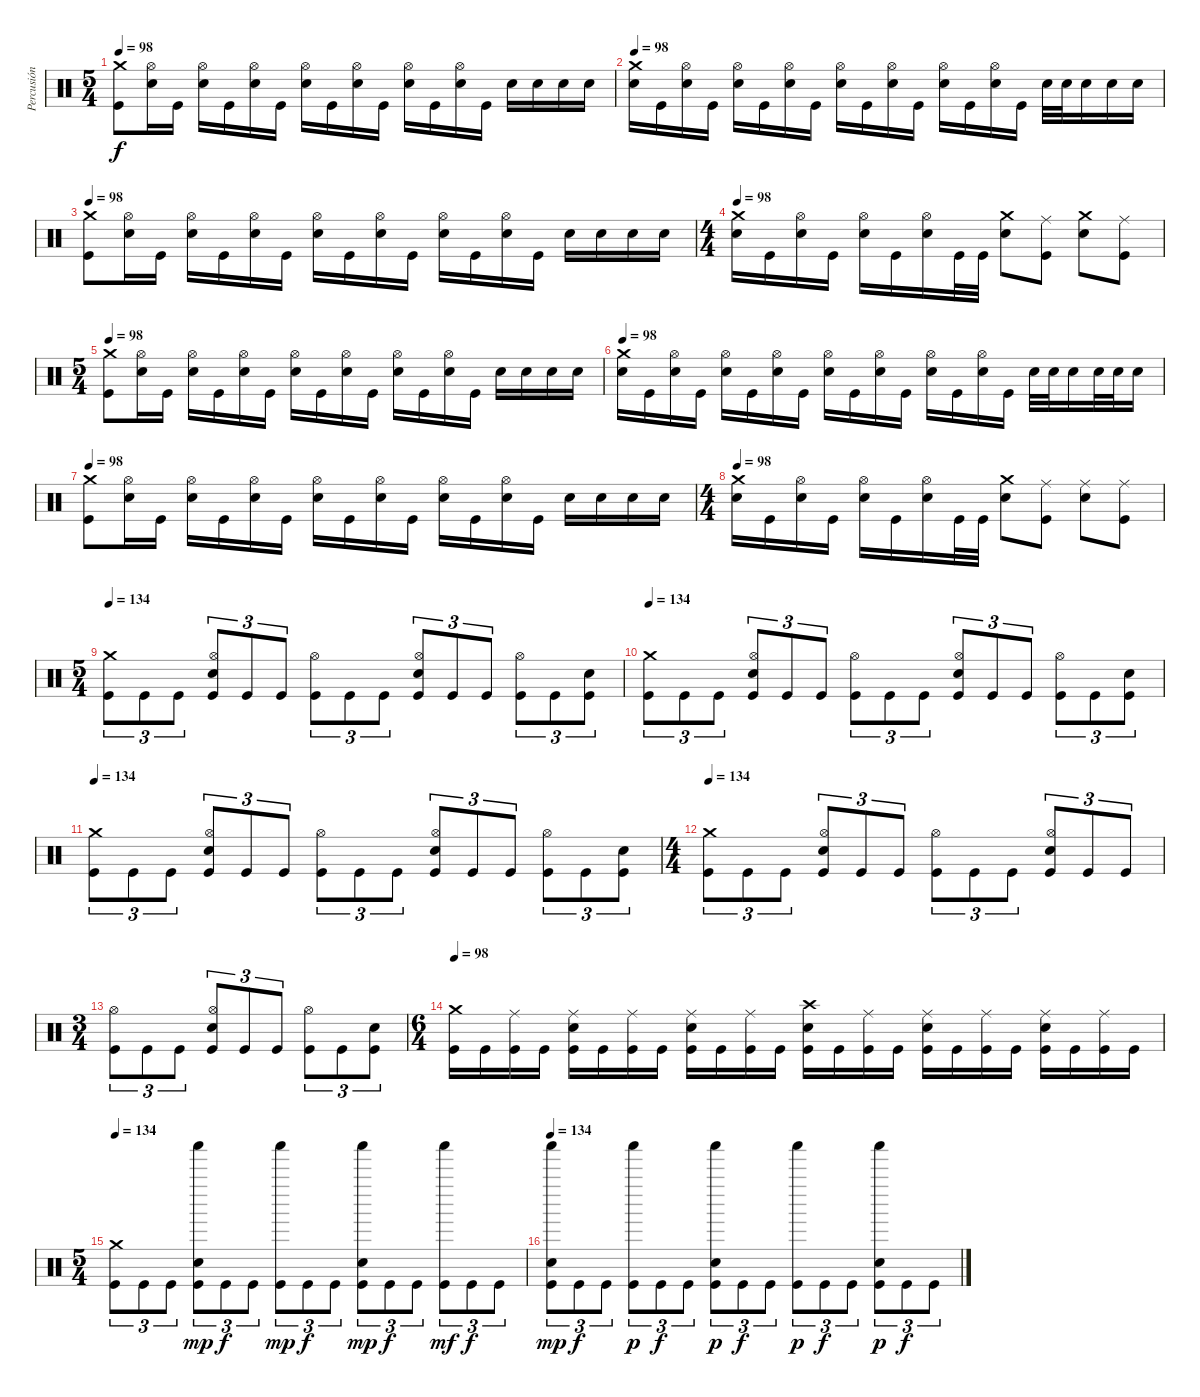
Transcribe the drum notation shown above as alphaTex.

\track ("Percusión" "Percusión") {instrument percussion}
\staff {score}
\articulation defaults
\ts (5 4)
\tempo 98
\clef neutral
\ks c
("Crash medium (hit)" "Kick (hit)").8{dy f} ("Hi-Hat (open)" "Electric Snare (hit)").16 "Kick (hit)".16 ("Hi-Hat (open)" "Electric Snare (hit)").16 "Kick (hit)".16 ("Hi-Hat (open)" "Electric Snare (hit)").16 "Kick (hit)".16 ("Hi-Hat (open)" "Electric Snare (hit)").16 "Kick (hit)".16 ("Hi-Hat (open)" "Electric Snare (hit)").16 "Kick (hit)".16 ("Hi-Hat (open)" "Electric Snare (hit)").16 "Kick (hit)".16 ("Hi-Hat (open)" "Electric Snare (hit)").16 "Kick (hit)".16 "Electric Snare (hit)".16 "Electric Snare (hit)".16 "Electric Snare (hit)".16 "Electric Snare (hit)".16 |
\tempo 98
("Crash medium (hit)" "Electric Snare (hit)").16 "Kick (hit)".16 ("Hi-Hat (open)" "Electric Snare (hit)").16 "Kick (hit)".16 ("Hi-Hat (open)" "Electric Snare (hit)").16 "Kick (hit)".16 ("Hi-Hat (open)" "Electric Snare (hit)").16 "Kick (hit)".16 ("Hi-Hat (open)" "Electric Snare (hit)").16 "Kick (hit)".16 ("Hi-Hat (open)" "Electric Snare (hit)").16 "Kick (hit)".16 ("Hi-Hat (open)" "Electric Snare (hit)").16 "Kick (hit)".16 ("Hi-Hat (open)" "Electric Snare (hit)").16 "Kick (hit)".16 "Electric Snare (hit)".32 "Electric Snare (hit)".32 "Electric Snare (hit)".16 "Electric Snare (hit)".16 "Electric Snare (hit)".16 |
\tempo 98
("Crash medium (hit)" "Kick (hit)").8 ("Hi-Hat (open)" "Electric Snare (hit)").16 "Kick (hit)".16 ("Hi-Hat (open)" "Electric Snare (hit)").16 "Kick (hit)".16 ("Hi-Hat (open)" "Electric Snare (hit)").16 "Kick (hit)".16 ("Hi-Hat (open)" "Electric Snare (hit)").16 "Kick (hit)".16 ("Hi-Hat (open)" "Electric Snare (hit)").16 "Kick (hit)".16 ("Hi-Hat (open)" "Electric Snare (hit)").16 "Kick (hit)".16 ("Hi-Hat (open)" "Electric Snare (hit)").16 "Kick (hit)".16 "Electric Snare (hit)".16 "Electric Snare (hit)".16 "Electric Snare (hit)".16 "Electric Snare (hit)".16 |
\ts (4 4)
\tempo 98
("Crash medium (hit)" "Electric Snare (hit)").16 "Kick (hit)".16 ("Hi-Hat (open)" "Electric Snare (hit)").16 "Kick (hit)".16 ("Hi-Hat (open)" "Electric Snare (hit)").16 "Kick (hit)".16 ("Hi-Hat (open)" "Electric Snare (hit)").16 "Kick (hit)".32 "Kick (hit)".32 ("Crash medium (hit)" "Electric Snare (hit)").8 ("Ride (middle)" "Kick (hit)").8 ("Crash medium (hit)" "Electric Snare (hit)").8 ("Ride (middle)" "Kick (hit)").8 |
\ts (5 4)
\tempo 98
("Crash medium (hit)" "Kick (hit)").8 ("Hi-Hat (open)" "Electric Snare (hit)").16 "Kick (hit)".16 ("Hi-Hat (open)" "Electric Snare (hit)").16 "Kick (hit)".16 ("Hi-Hat (open)" "Electric Snare (hit)").16 "Kick (hit)".16 ("Hi-Hat (open)" "Electric Snare (hit)").16 "Kick (hit)".16 ("Hi-Hat (open)" "Electric Snare (hit)").16 "Kick (hit)".16 ("Hi-Hat (open)" "Electric Snare (hit)").16 "Kick (hit)".16 ("Hi-Hat (open)" "Electric Snare (hit)").16 "Kick (hit)".16 "Electric Snare (hit)".16 "Electric Snare (hit)".16 "Electric Snare (hit)".16 "Electric Snare (hit)".16 |
\tempo 98
("Crash medium (hit)" "Electric Snare (hit)").16 "Kick (hit)".16 ("Hi-Hat (open)" "Electric Snare (hit)").16 "Kick (hit)".16 ("Hi-Hat (open)" "Electric Snare (hit)").16 "Kick (hit)".16 ("Hi-Hat (open)" "Electric Snare (hit)").16 "Kick (hit)".16 ("Hi-Hat (open)" "Electric Snare (hit)").16 "Kick (hit)".16 ("Hi-Hat (open)" "Electric Snare (hit)").16 "Kick (hit)".16 ("Hi-Hat (open)" "Electric Snare (hit)").16 "Kick (hit)".16 ("Hi-Hat (open)" "Electric Snare (hit)").16 "Kick (hit)".16 "Electric Snare (hit)".32 "Electric Snare (hit)".32 "Electric Snare (hit)".16 "Electric Snare (hit)".32 "Electric Snare (hit)".32 "Electric Snare (hit)".16 |
\tempo 98
("Crash medium (hit)" "Kick (hit)").8 ("Hi-Hat (open)" "Electric Snare (hit)").16 "Kick (hit)".16 ("Hi-Hat (open)" "Electric Snare (hit)").16 "Kick (hit)".16 ("Hi-Hat (open)" "Electric Snare (hit)").16 "Kick (hit)".16 ("Hi-Hat (open)" "Electric Snare (hit)").16 "Kick (hit)".16 ("Hi-Hat (open)" "Electric Snare (hit)").16 "Kick (hit)".16 ("Hi-Hat (open)" "Electric Snare (hit)").16 "Kick (hit)".16 ("Hi-Hat (open)" "Electric Snare (hit)").16 "Kick (hit)".16 "Electric Snare (hit)".16 "Electric Snare (hit)".16 "Electric Snare (hit)".16 "Electric Snare (hit)".16 |
\ts (4 4)
\tempo 98
("Crash medium (hit)" "Electric Snare (hit)").16 "Kick (hit)".16 ("Hi-Hat (open)" "Electric Snare (hit)").16 "Kick (hit)".16 ("Hi-Hat (open)" "Electric Snare (hit)").16 "Kick (hit)".16 ("Hi-Hat (open)" "Electric Snare (hit)").16 "Kick (hit)".32 "Kick (hit)".32 ("Crash medium (hit)" "Electric Snare (hit)").8 ("Ride (middle)" "Kick (hit)").8 ("Ride (middle)" "Electric Snare (hit)").8 ("Ride (middle)" "Kick (hit)").8 |
\ts (5 4)
\tempo 134
("Crash medium (hit)" "Kick (hit)").8{tu (3 2)} "Kick (hit)".8{tu (3 2)} "Kick (hit)".8{tu (3 2)} ("Hi-Hat (open)" "Electric Snare (hit)" "Kick (hit)").8{tu (3 2)} "Kick (hit)".8{tu (3 2)} "Kick (hit)".8{tu (3 2)} ("Hi-Hat (open)" "Kick (hit)").8{tu (3 2)} "Kick (hit)".8{tu (3 2)} "Kick (hit)".8{tu (3 2)} ("Hi-Hat (open)" "Electric Snare (hit)" "Kick (hit)").8{tu (3 2)} "Kick (hit)".8{tu (3 2)} "Kick (hit)".8{tu (3 2)} ("Hi-Hat (open)" "Kick (hit)").8{tu (3 2)} "Kick (hit)".8{tu (3 2)} ("Electric Snare (hit)" "Kick (hit)").8{tu (3 2)} |
\tempo 134
("Crash medium (hit)" "Kick (hit)").8{tu (3 2)} "Kick (hit)".8{tu (3 2)} "Kick (hit)".8{tu (3 2)} ("Hi-Hat (open)" "Electric Snare (hit)" "Kick (hit)").8{tu (3 2)} "Kick (hit)".8{tu (3 2)} "Kick (hit)".8{tu (3 2)} ("Hi-Hat (open)" "Kick (hit)").8{tu (3 2)} "Kick (hit)".8{tu (3 2)} "Kick (hit)".8{tu (3 2)} ("Hi-Hat (open)" "Electric Snare (hit)" "Kick (hit)").8{tu (3 2)} "Kick (hit)".8{tu (3 2)} "Kick (hit)".8{tu (3 2)} ("Hi-Hat (open)" "Kick (hit)").8{tu (3 2)} "Kick (hit)".8{tu (3 2)} ("Electric Snare (hit)" "Kick (hit)").8{tu (3 2)} |
\tempo 134
("Crash medium (hit)" "Kick (hit)").8{tu (3 2)} "Kick (hit)".8{tu (3 2)} "Kick (hit)".8{tu (3 2)} ("Hi-Hat (open)" "Electric Snare (hit)" "Kick (hit)").8{tu (3 2)} "Kick (hit)".8{tu (3 2)} "Kick (hit)".8{tu (3 2)} ("Hi-Hat (open)" "Kick (hit)").8{tu (3 2)} "Kick (hit)".8{tu (3 2)} "Kick (hit)".8{tu (3 2)} ("Hi-Hat (open)" "Electric Snare (hit)" "Kick (hit)").8{tu (3 2)} "Kick (hit)".8{tu (3 2)} "Kick (hit)".8{tu (3 2)} ("Hi-Hat (open)" "Kick (hit)").8{tu (3 2)} "Kick (hit)".8{tu (3 2)} ("Electric Snare (hit)" "Kick (hit)").8{tu (3 2)} |
\ts (4 4)
\tempo 134
("Crash medium (hit)" "Kick (hit)").8{tu (3 2)} "Kick (hit)".8{tu (3 2)} "Kick (hit)".8{tu (3 2)} ("Hi-Hat (open)" "Electric Snare (hit)" "Kick (hit)").8{tu (3 2)} "Kick (hit)".8{tu (3 2)} "Kick (hit)".8{tu (3 2)} ("Hi-Hat (open)" "Kick (hit)").8{tu (3 2)} "Kick (hit)".8{tu (3 2)} "Kick (hit)".8{tu (3 2)} ("Hi-Hat (open)" "Electric Snare (hit)" "Kick (hit)").8{tu (3 2)} "Kick (hit)".8{tu (3 2)} "Kick (hit)".8{tu (3 2)} |
\ts (3 4)
("Hi-Hat (open)" "Kick (hit)").8{tu (3 2)} "Kick (hit)".8{tu (3 2)} "Kick (hit)".8{tu (3 2)} ("Hi-Hat (open)" "Electric Snare (hit)" "Kick (hit)").8{tu (3 2)} "Kick (hit)".8{tu (3 2)} "Kick (hit)".8{tu (3 2)} ("Hi-Hat (open)" "Kick (hit)").8{tu (3 2)} "Kick (hit)".8{tu (3 2)} ("Electric Snare (hit)" "Kick (hit)").8{tu (3 2)} |
\ts (6 4)
\tempo 98
("Crash medium (hit)" "Kick (hit)").16 "Kick (hit)".16 ("Ride (middle)" "Kick (hit)").16 "Kick (hit)".16 ("Ride (middle)" "Electric Snare (hit)" "Kick (hit)").16 "Kick (hit)".16 ("Ride (middle)" "Kick (hit)").16 "Kick (hit)".16 ("Ride (middle)" "Electric Snare (hit)" "Kick (hit)").16 "Kick (hit)".16 ("Ride (middle)" "Kick (hit)").16 "Kick (hit)".16 ("Crash high (hit)" "Electric Snare (hit)" "Kick (hit)").16 "Kick (hit)".16 ("Ride (middle)" "Kick (hit)").16 "Kick (hit)".16 ("Ride (middle)" "Electric Snare (hit)" "Kick (hit)").16 "Kick (hit)".16 ("Ride (middle)" "Kick (hit)").16 "Kick (hit)".16 ("Ride (middle)" "Electric Snare (hit)" "Kick (hit)").16 "Kick (hit)".16 ("Ride (middle)" "Kick (hit)").16 "Kick (hit)".16 |
\ts (5 4)
\tempo 134
("Crash medium (hit)" "Kick (hit)").8{tu (3 2)} "Kick (hit)".8{tu (3 2)} "Kick (hit)".8{tu (3 2)} ("Shaker (hit)" "Electric Snare (hit)" "Kick (hit)").8{tu (3 2) dy mp} "Kick (hit)".8{tu (3 2) dy f} "Kick (hit)".8{tu (3 2)} ("Shaker (hit)" "Kick (hit)").8{tu (3 2) dy mp} "Kick (hit)".8{tu (3 2) dy f} "Kick (hit)".8{tu (3 2)} ("Shaker (hit)" "Electric Snare (hit)" "Kick (hit)").8{tu (3 2) dy mp} "Kick (hit)".8{tu (3 2) dy f} "Kick (hit)".8{tu (3 2)} ("Shaker (hit)" "Kick (hit)").8{tu (3 2) dy mf} "Kick (hit)".8{tu (3 2) dy f} "Kick (hit)".8{tu (3 2)} |
\tempo 134
("Shaker (hit)" "Electric Snare (hit)" "Kick (hit)").8{tu (3 2) dy mp} "Kick (hit)".8{tu (3 2) dy f} "Kick (hit)".8{tu (3 2)} ("Shaker (hit)" "Kick (hit)").8{tu (3 2) dy p} "Kick (hit)".8{tu (3 2) dy f} "Kick (hit)".8{tu (3 2)} ("Shaker (hit)" "Electric Snare (hit)" "Kick (hit)").8{tu (3 2) dy p} "Kick (hit)".8{tu (3 2) dy f} "Kick (hit)".8{tu (3 2)} ("Shaker (hit)" "Kick (hit)").8{tu (3 2) dy p} "Kick (hit)".8{tu (3 2) dy f} "Kick (hit)".8{tu (3 2)} ("Shaker (hit)" "Electric Snare (hit)" "Kick (hit)").8{tu (3 2) dy p} "Kick (hit)".8{tu (3 2) dy f} "Kick (hit)".8{tu (3 2)}
